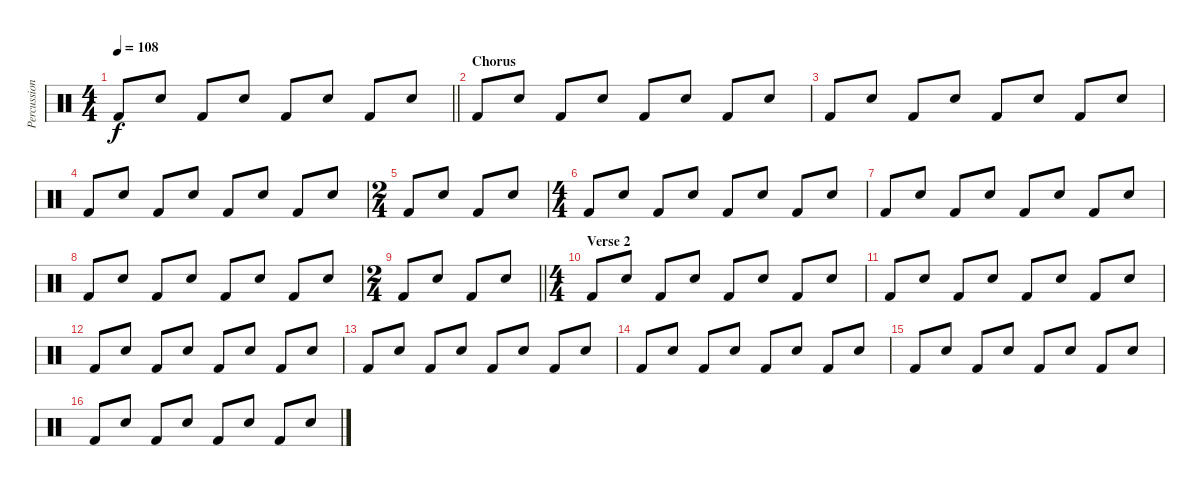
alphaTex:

\track ("Percussion" "Percussion") {instrument percussion}
\staff {score}
\articulation defaults
\ts (4 4)
\tempo 108
\clef neutral
\barLineRight lightlight
\ks c "Kick (hit) 2".8{dy f} "Snare (hit) 2".8 "Kick (hit) 2".8 "Snare (hit) 2".8 "Kick (hit) 2".8 "Snare (hit) 2".8 "Kick (hit) 2".8 "Snare (hit) 2".8
|
\section ("" "Chorus")
"Kick (hit) 2".8 "Snare (hit) 2".8 "Kick (hit) 2".8 "Snare (hit) 2".8 "Kick (hit) 2".8 "Snare (hit) 2".8 "Kick (hit) 2".8 "Snare (hit) 2".8 |
"Kick (hit) 2".8 "Snare (hit) 2".8 "Kick (hit) 2".8 "Snare (hit) 2".8 "Kick (hit) 2".8 "Snare (hit) 2".8 "Kick (hit) 2".8 "Snare (hit) 2".8 |
"Kick (hit) 2".8 "Snare (hit) 2".8 "Kick (hit) 2".8 "Snare (hit) 2".8 "Kick (hit) 2".8 "Snare (hit) 2".8 "Kick (hit) 2".8 "Snare (hit) 2".8 |
\ts (2 4)
"Kick (hit) 2".8 "Snare (hit) 2".8 "Kick (hit) 2".8 "Snare (hit) 2".8 |
\ts (4 4)
"Kick (hit) 2".8 "Snare (hit) 2".8 "Kick (hit) 2".8 "Snare (hit) 2".8 "Kick (hit) 2".8 "Snare (hit) 2".8 "Kick (hit) 2".8 "Snare (hit) 2".8 |
"Kick (hit) 2".8 "Snare (hit) 2".8 "Kick (hit) 2".8 "Snare (hit) 2".8 "Kick (hit) 2".8 "Snare (hit) 2".8 "Kick (hit) 2".8 "Snare (hit) 2".8 |
"Kick (hit) 2".8 "Snare (hit) 2".8 "Kick (hit) 2".8 "Snare (hit) 2".8 "Kick (hit) 2".8 "Snare (hit) 2".8 "Kick (hit) 2".8 "Snare (hit) 2".8 |
\ts (2 4)
\barLineRight lightlight "Kick (hit) 2".8 "Snare (hit) 2".8 "Kick (hit) 2".8 "Snare (hit) 2".8
|
\ts (4 4)
\section ("" "Verse 2")
"Kick (hit) 2".8 "Snare (hit) 2".8 "Kick (hit) 2".8 "Snare (hit) 2".8 "Kick (hit) 2".8 "Snare (hit) 2".8 "Kick (hit) 2".8 "Snare (hit) 2".8 |
"Kick (hit) 2".8 "Snare (hit) 2".8 "Kick (hit) 2".8 "Snare (hit) 2".8 "Kick (hit) 2".8 "Snare (hit) 2".8 "Kick (hit) 2".8 "Snare (hit) 2".8 |
"Kick (hit) 2".8 "Snare (hit) 2".8 "Kick (hit) 2".8 "Snare (hit) 2".8 "Kick (hit) 2".8 "Snare (hit) 2".8 "Kick (hit) 2".8 "Snare (hit) 2".8 |
"Kick (hit) 2".8 "Snare (hit) 2".8 "Kick (hit) 2".8 "Snare (hit) 2".8 "Kick (hit) 2".8 "Snare (hit) 2".8 "Kick (hit) 2".8 "Snare (hit) 2".8 |
"Kick (hit) 2".8 "Snare (hit) 2".8 "Kick (hit) 2".8 "Snare (hit) 2".8 "Kick (hit) 2".8 "Snare (hit) 2".8 "Kick (hit) 2".8 "Snare (hit) 2".8 |
"Kick (hit) 2".8 "Snare (hit) 2".8 "Kick (hit) 2".8 "Snare (hit) 2".8 "Kick (hit) 2".8 "Snare (hit) 2".8 "Kick (hit) 2".8 "Snare (hit) 2".8 |
"Kick (hit) 2".8 "Snare (hit) 2".8 "Kick (hit) 2".8 "Snare (hit) 2".8 "Kick (hit) 2".8 "Snare (hit) 2".8 "Kick (hit) 2".8 "Snare (hit) 2".8
